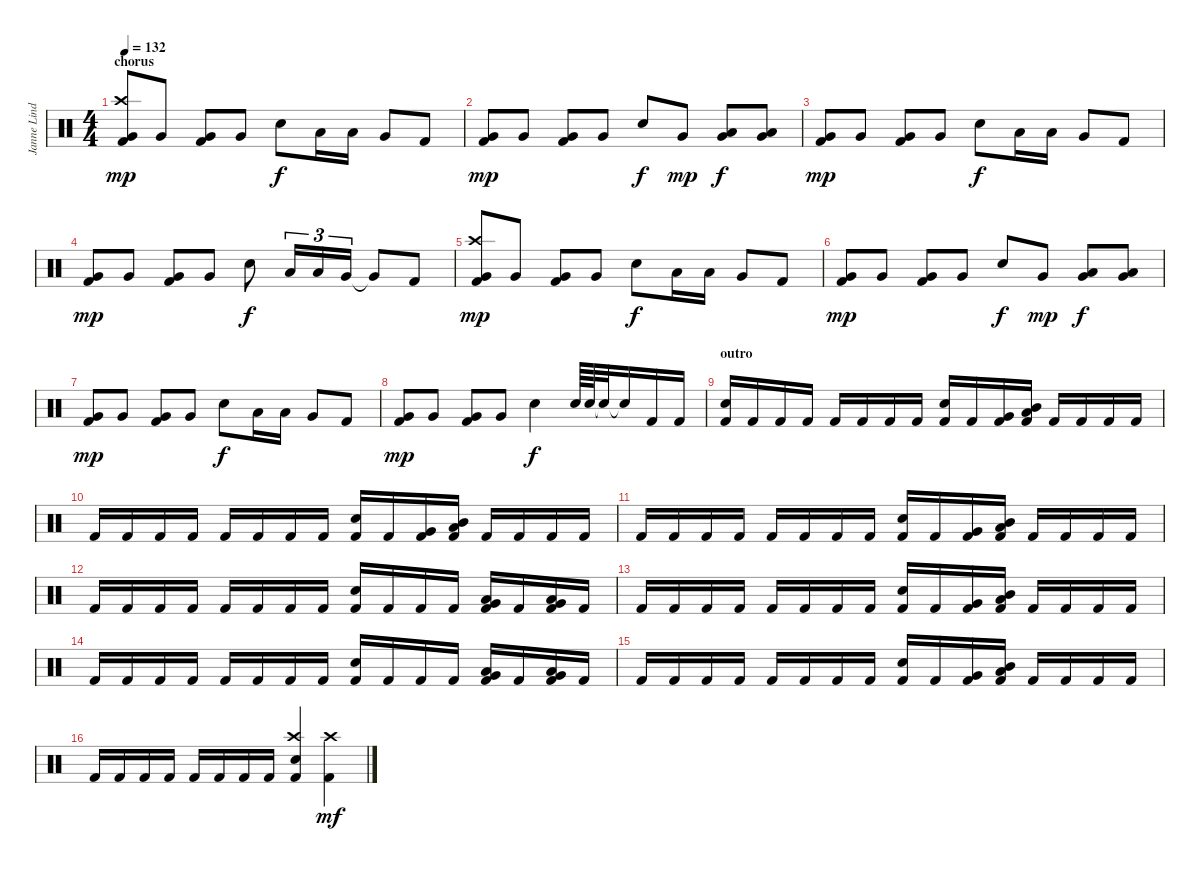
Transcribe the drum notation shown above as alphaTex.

\track ("Janne Lindh" "Janne Lind") {instrument percussion}
\staff {score}
\articulation defaults
\ts (4 4)
\section ("" "chorus")
\tempo 132
\clef neutral
\ks c
("Kick (hit) 2" "Crash high (hit)" "Very Low Tom (hit)").8{dy mp} "Very Low Tom (hit)".8 ("Kick (hit) 2" "Very Low Tom (hit)").8 "Very Low Tom (hit)".8 "Snare (hit) 2".8{dy f} "Low Tom (hit)".16 "Low Tom (hit)".16 "Very Low Tom (hit)".8 "Kick (hit) 2".8 |
("Kick (hit) 2" "Very Low Tom (hit)").8{dy mp} "Very Low Tom (hit)".8 ("Kick (hit) 2" "Very Low Tom (hit)").8 "Very Low Tom (hit)".8 "Snare (hit) 2".8{dy f} "Very Low Tom (hit)".8{dy mp} ("Very Low Tom (hit)" "Low Tom (hit)").8{dy f} ("Very Low Tom (hit)" "Low Tom (hit)").8 |
("Kick (hit) 2" "Very Low Tom (hit)").8{dy mp} "Very Low Tom (hit)".8 ("Kick (hit) 2" "Very Low Tom (hit)").8 "Very Low Tom (hit)".8 "Snare (hit) 2".8{dy f} "Low Tom (hit)".16 "Low Tom (hit)".16 "Very Low Tom (hit)".8 "Kick (hit) 2".8 |
("Kick (hit) 2" "Very Low Tom (hit)").8{dy mp} "Very Low Tom (hit)".8 ("Kick (hit) 2" "Very Low Tom (hit)").8 "Very Low Tom (hit)".8 "Snare (hit) 2".8{dy f} "Low Tom (hit)".16{tu (3 2)} "Low Tom (hit)".16{tu (3 2)} "Very Low Tom (hit)".16{tu (3 2)} "Very Low Tom (hit)"{t}.8 "Kick (hit) 2".8 |
("Kick (hit) 2" "Crash high (hit)" "Very Low Tom (hit)").8{dy mp} "Very Low Tom (hit)".8 ("Kick (hit) 2" "Very Low Tom (hit)").8 "Very Low Tom (hit)".8 "Snare (hit) 2".8{dy f} "Low Tom (hit)".16 "Low Tom (hit)".16 "Very Low Tom (hit)".8 "Kick (hit) 2".8 |
("Kick (hit) 2" "Very Low Tom (hit)").8{dy mp} "Very Low Tom (hit)".8 ("Kick (hit) 2" "Very Low Tom (hit)").8 "Very Low Tom (hit)".8 "Snare (hit) 2".8{dy f} "Very Low Tom (hit)".8{dy mp} ("Very Low Tom (hit)" "Low Tom (hit)").8{dy f} ("Very Low Tom (hit)" "Low Tom (hit)").8 |
("Kick (hit) 2" "Very Low Tom (hit)").8{dy mp} "Very Low Tom (hit)".8 ("Kick (hit) 2" "Very Low Tom (hit)").8 "Very Low Tom (hit)".8 "Snare (hit) 2".8{dy f} "Low Tom (hit)".16 "Low Tom (hit)".16 "Very Low Tom (hit)".8 "Kick (hit) 2".8 |
("Kick (hit) 2" "Very Low Tom (hit)").8{dy mp} "Very Low Tom (hit)".8 ("Kick (hit) 2" "Very Low Tom (hit)").8 "Very Low Tom (hit)".8 "Snare (hit) 2".4{dy f} "Snare (hit) 2".64 "Snare (hit) 2".64 "Snare (hit)"{t}.32 "Snare (hit)"{t}.16 "Kick (hit) 2".16 "Kick (hit) 2".16 |
\section ("" "outro")
("Kick (hit) 2" "Snare (hit) 2").16 "Kick (hit) 2".16 "Kick (hit) 2".16 "Kick (hit) 2".16 "Kick (hit) 2".16 "Kick (hit) 2".16 "Kick (hit) 2".16 "Kick (hit) 2".16 ("Kick (hit) 2" "Snare (hit) 2").16 "Kick (hit) 2".16 ("Kick (hit) 2" "Very Low Tom (hit)").16 ("Kick (hit) 2" "Low Tom (hit)" "Mid Tom (hit)").16 "Kick (hit) 2".16 "Kick (hit) 2".16 "Kick (hit) 2".16 "Kick (hit) 2".16 |
"Kick (hit) 2".16 "Kick (hit) 2".16 "Kick (hit) 2".16 "Kick (hit) 2".16 "Kick (hit) 2".16 "Kick (hit) 2".16 "Kick (hit) 2".16 "Kick (hit) 2".16 ("Kick (hit) 2" "Snare (hit) 2").16 "Kick (hit) 2".16 ("Kick (hit) 2" "Very Low Tom (hit)").16 ("Kick (hit) 2" "Low Tom (hit)" "Mid Tom (hit)").16 "Kick (hit) 2".16 "Kick (hit) 2".16 "Kick (hit) 2".16 "Kick (hit) 2".16 |
"Kick (hit) 2".16 "Kick (hit) 2".16 "Kick (hit) 2".16 "Kick (hit) 2".16 "Kick (hit) 2".16 "Kick (hit) 2".16 "Kick (hit) 2".16 "Kick (hit) 2".16 ("Kick (hit) 2" "Snare (hit) 2").16 "Kick (hit) 2".16 ("Kick (hit) 2" "Very Low Tom (hit)").16 ("Kick (hit) 2" "Low Tom (hit)" "Mid Tom (hit)").16 "Kick (hit) 2".16 "Kick (hit) 2".16 "Kick (hit) 2".16 "Kick (hit) 2".16 |
"Kick (hit) 2".16 "Kick (hit) 2".16 "Kick (hit) 2".16 "Kick (hit) 2".16 "Kick (hit) 2".16 "Kick (hit) 2".16 "Kick (hit) 2".16 "Kick (hit) 2".16 ("Kick (hit) 2" "Snare (hit) 2").16 "Kick (hit) 2".16 "Kick (hit) 2".16 "Kick (hit) 2".16 ("Kick (hit) 2" "Low Tom (hit)" "Very Low Tom (hit)").16 "Kick (hit) 2".16 ("Kick (hit) 2" "Low Tom (hit)" "Very Low Tom (hit)").16 "Kick (hit) 2".16 |
"Kick (hit) 2".16 "Kick (hit) 2".16 "Kick (hit) 2".16 "Kick (hit) 2".16 "Kick (hit) 2".16 "Kick (hit) 2".16 "Kick (hit) 2".16 "Kick (hit) 2".16 ("Kick (hit) 2" "Snare (hit) 2").16 "Kick (hit) 2".16 ("Kick (hit) 2" "Very Low Tom (hit)").16 ("Kick (hit) 2" "Low Tom (hit)" "Mid Tom (hit)").16 "Kick (hit) 2".16 "Kick (hit) 2".16 "Kick (hit) 2".16 "Kick (hit) 2".16 |
"Kick (hit) 2".16 "Kick (hit) 2".16 "Kick (hit) 2".16 "Kick (hit) 2".16 "Kick (hit) 2".16 "Kick (hit) 2".16 "Kick (hit) 2".16 "Kick (hit) 2".16 ("Kick (hit) 2" "Snare (hit) 2").16 "Kick (hit) 2".16 "Kick (hit) 2".16 "Kick (hit) 2".16 ("Kick (hit) 2" "Low Tom (hit)" "Very Low Tom (hit)").16 "Kick (hit) 2".16 ("Kick (hit) 2" "Low Tom (hit)" "Very Low Tom (hit)").16 "Kick (hit) 2".16 |
"Kick (hit) 2".16 "Kick (hit) 2".16 "Kick (hit) 2".16 "Kick (hit) 2".16 "Kick (hit) 2".16 "Kick (hit) 2".16 "Kick (hit) 2".16 "Kick (hit) 2".16 ("Kick (hit) 2" "Snare (hit) 2").16 "Kick (hit) 2".16 ("Kick (hit) 2" "Very Low Tom (hit)").16 ("Kick (hit) 2" "Low Tom (hit)" "Mid Tom (hit)").16 "Kick (hit) 2".16 "Kick (hit) 2".16 "Kick (hit) 2".16 "Kick (hit) 2".16 |
"Kick (hit) 2".16 "Kick (hit) 2".16 "Kick (hit) 2".16 "Kick (hit) 2".16 "Kick (hit) 2".16 "Kick (hit) 2".16 "Kick (hit) 2".16 "Kick (hit) 2".16 ("Kick (hit) 2" "Crash high (hit)" "Snare (hit) 2").4 ("Kick (hit) 2" "Crash high (hit)").4{dy mf}
